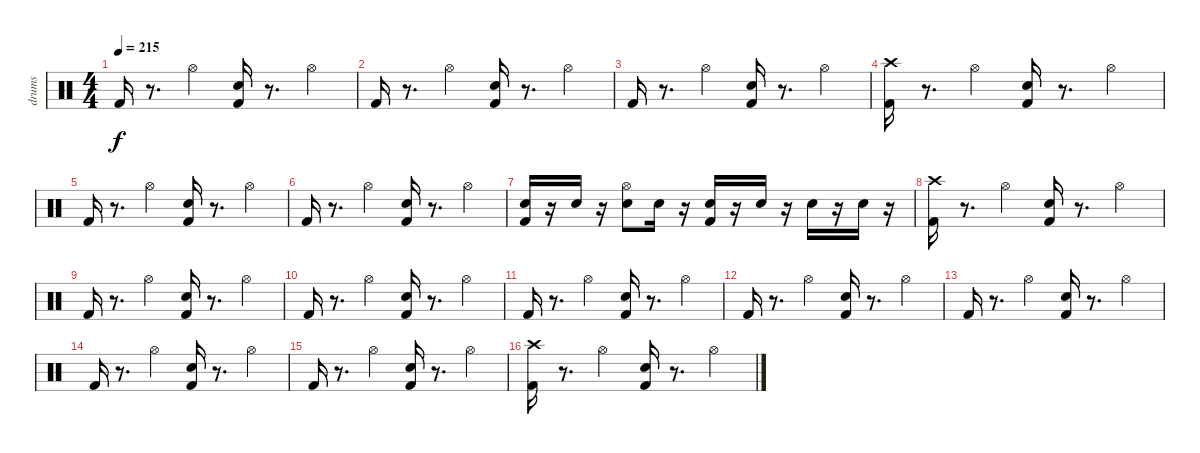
\track ("drums" "drums") {instrument percussion}
\staff {score}
\articulation defaults
\ts (4 4)
\tempo 215
\clef neutral
\ks c "Kick (hit) 2".16{dy f}
r.8{d} "Hi-Hat (open)".4 ("Electric Snare (hit)" "Kick (hit) 2").16 r.8{d} "Hi-Hat (open)".4 |
"Kick (hit) 2".16 r.8{d} "Hi-Hat (open)".4 ("Electric Snare (hit)" "Kick (hit) 2").16 r.8{d} "Hi-Hat (open)".4 |
"Kick (hit) 2".16 r.8{d} "Hi-Hat (open)".4 ("Electric Snare (hit)" "Kick (hit) 2").16 r.8{d} "Hi-Hat (open)".4 |
("Crash high (hit)" "Kick (hit) 2").16 r.8{d} "Hi-Hat (open)".4 ("Electric Snare (hit)" "Kick (hit) 2").16 r.8{d} "Hi-Hat (open)".4 |
"Kick (hit) 2".16 r.8{d} "Hi-Hat (open)".4 ("Electric Snare (hit)" "Kick (hit) 2").16 r.8{d} "Hi-Hat (open)".4 |
"Kick (hit) 2".16 r.8{d} "Hi-Hat (open)".4 ("Electric Snare (hit)" "Kick (hit) 2").16 r.8{d} "Hi-Hat (open)".4 |
("Electric Snare (hit)" "Kick (hit) 2").16 r.16 "Electric Snare (hit)".16 r.16 ("Electric Snare (hit)" "Hi-Hat (open)").8 "Electric Snare (hit)".16 r.16 ("Electric Snare (hit)" "Kick (hit) 2").16 r.16 "Electric Snare (hit)".16 r.16 "Electric Snare (hit)".16 r.16 "Electric Snare (hit)".16 r.16 |
("Crash high (hit)" "Kick (hit) 2").16 r.8{d} "Hi-Hat (open)".4 ("Electric Snare (hit)" "Kick (hit) 2").16 r.8{d} "Hi-Hat (open)".4 |
"Kick (hit) 2".16 r.8{d} "Hi-Hat (open)".4 ("Electric Snare (hit)" "Kick (hit) 2").16 r.8{d} "Hi-Hat (open)".4 |
"Kick (hit) 2".16 r.8{d} "Hi-Hat (open)".4 ("Electric Snare (hit)" "Kick (hit) 2").16 r.8{d} "Hi-Hat (open)".4 |
"Kick (hit) 2".16 r.8{d} "Hi-Hat (open)".4 ("Electric Snare (hit)" "Kick (hit) 2").16 r.8{d} "Hi-Hat (open)".4 |
"Kick (hit) 2".16 r.8{d} "Hi-Hat (open)".4 ("Electric Snare (hit)" "Kick (hit) 2").16 r.8{d} "Hi-Hat (open)".4 |
"Kick (hit) 2".16 r.8{d} "Hi-Hat (open)".4 ("Electric Snare (hit)" "Kick (hit) 2").16 r.8{d} "Hi-Hat (open)".4 |
"Kick (hit) 2".16 r.8{d} "Hi-Hat (open)".4 ("Electric Snare (hit)" "Kick (hit) 2").16 r.8{d} "Hi-Hat (open)".4 |
"Kick (hit) 2".16 r.8{d} "Hi-Hat (open)".4 ("Electric Snare (hit)" "Kick (hit) 2").16 r.8{d} "Hi-Hat (open)".4 |
("Crash high (hit)" "Kick (hit) 2").16 r.8{d} "Hi-Hat (open)".4 ("Electric Snare (hit)" "Kick (hit) 2").16 r.8{d} "Hi-Hat (open)".4
